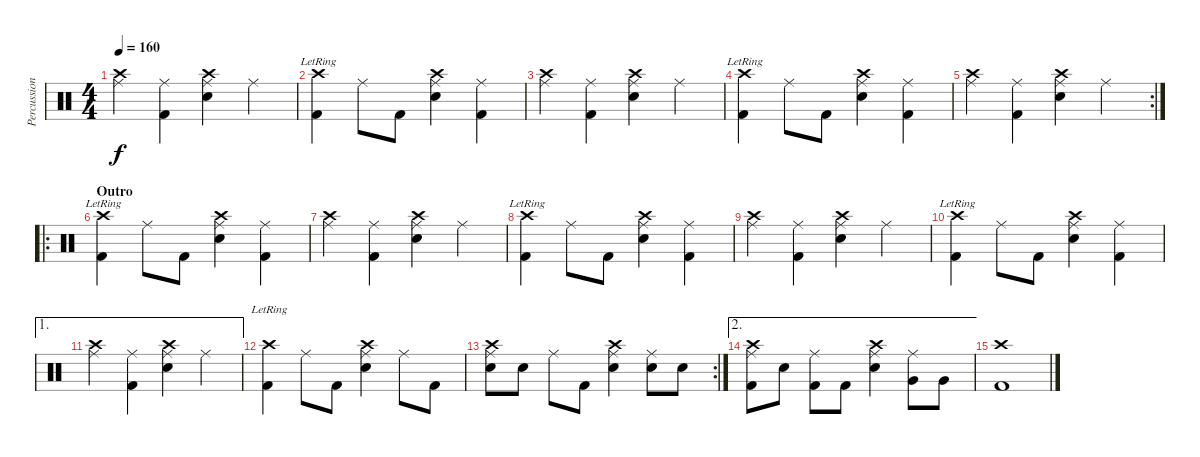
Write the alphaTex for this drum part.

\track ("Percussion" "Percussion") {instrument percussion}
\staff {score}
\articulation defaults
\ts (4 4)
\tempo 160
\clef neutral
\ks c
("Crash high (hit)" "Ride (middle)").4{dy f} ("Ride (middle)" "Kick (hit) 2").4 ("Crash high (hit)" "Ride (middle)" "Electric Snare (hit)").4 "Ride (middle)".4 |
("Crash high (hit)"{lr} "Kick (hit) 2").4 "Ride (middle)".8 "Kick (hit) 2".8 ("Crash high (hit)" "Ride (middle)" "Electric Snare (hit)").4 ("Ride (middle)" "Kick (hit) 2").4 |
("Crash high (hit)" "Ride (middle)").4 ("Ride (middle)" "Kick (hit) 2").4 ("Crash high (hit)" "Ride (middle)" "Electric Snare (hit)").4 "Ride (middle)".4 |
("Crash high (hit)"{lr} "Kick (hit) 2").4 "Ride (middle)".8 "Kick (hit) 2".8 ("Crash high (hit)" "Ride (middle)" "Electric Snare (hit)").4 ("Ride (middle)" "Kick (hit) 2").4 |
\rc 2
("Crash high (hit)" "Ride (middle)").4 ("Ride (middle)" "Kick (hit) 2").4 ("Crash high (hit)" "Ride (middle)" "Electric Snare (hit)").4 "Ride (middle)".4 |
\ro
\section ("" "Outro")
("Crash high (hit)"{lr} "Kick (hit) 2").4 "Ride (middle)".8 "Kick (hit) 2".8 ("Crash high (hit)" "Ride (middle)" "Electric Snare (hit)").4 ("Ride (middle)" "Kick (hit) 2").4 |
("Crash high (hit)" "Ride (middle)").4 ("Ride (middle)" "Kick (hit) 2").4 ("Crash high (hit)" "Ride (middle)" "Electric Snare (hit)").4 "Ride (middle)".4 |
("Crash high (hit)"{lr} "Kick (hit) 2").4 "Ride (middle)".8 "Kick (hit) 2".8 ("Crash high (hit)" "Ride (middle)" "Electric Snare (hit)").4 ("Ride (middle)" "Kick (hit) 2").4 |
("Crash high (hit)" "Ride (middle)").4 ("Ride (middle)" "Kick (hit) 2").4 ("Crash high (hit)" "Ride (middle)" "Electric Snare (hit)").4 "Ride (middle)".4 |
("Crash high (hit)"{lr} "Kick (hit) 2").4 "Ride (middle)".8 "Kick (hit) 2".8 ("Crash high (hit)" "Ride (middle)" "Electric Snare (hit)").4 ("Ride (middle)" "Kick (hit) 2").4 |
\ae 1
("Crash high (hit)" "Ride (middle)").4 ("Ride (middle)" "Kick (hit) 2").4 ("Crash high (hit)" "Ride (middle)" "Electric Snare (hit)").4 "Ride (middle)".4 |
("Crash high (hit)"{lr} "Kick (hit) 2").4 "Ride (middle)".8 "Kick (hit) 2".8 ("Crash high (hit)" "Ride (middle)" "Electric Snare (hit)").4 "Ride (middle)".8 "Kick (hit) 2".8 |
\rc 2
("Crash high (hit)" "Ride (middle)" "Electric Snare (hit)").8 "Electric Snare (hit)".8 "Ride (middle)".8 "Kick (hit) 2".8 ("Crash high (hit)" "Ride (middle)" "Electric Snare (hit)").4 ("Ride (middle)" "Electric Snare (hit)").8 "Electric Snare (hit)".8 |
\ae 2
("Crash high (hit)" "Ride (middle)" "Kick (hit) 2").8 "Electric Snare (hit)".8 ("Ride (middle)" "Kick (hit) 2").8 "Kick (hit) 2".8 ("Crash high (hit)" "Ride (middle)" "Electric Snare (hit)").4 ("Ride (middle)" "Very Low Tom (hit)").8 "Very Low Tom (hit)".8 |
("Crash high (hit)" "Kick (hit) 2").1
